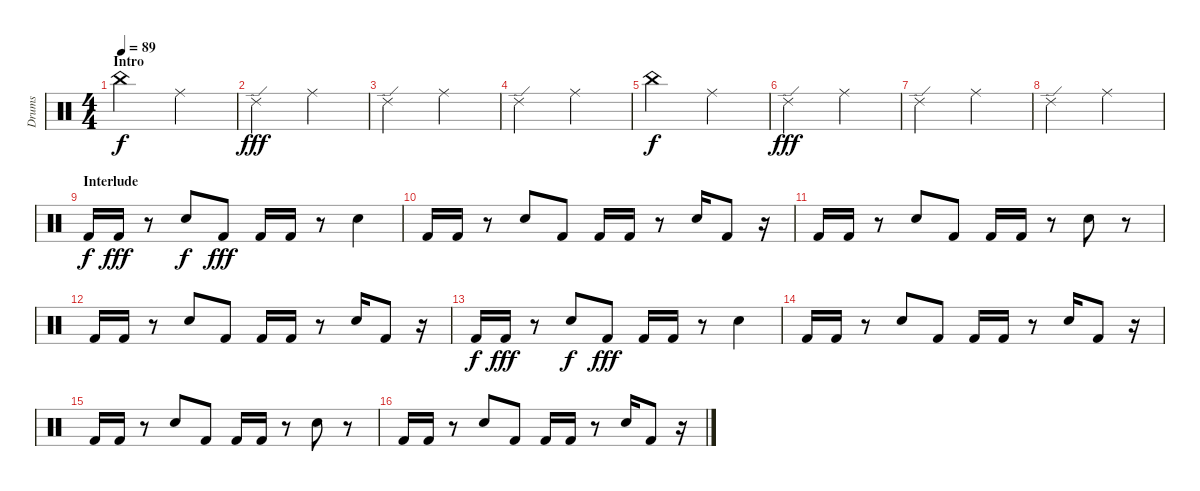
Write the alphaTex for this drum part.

\track ("Drums" "Drums") {instrument percussion}
\staff {score}
\articulation defaults
\ts (4 4)
\section ("" "Intro")
\tempo 89
\clef neutral
\ks c "China (hit)".2{dy f} "Ride (middle)".2
|
"Ride (edge) 2".2{dy fff} "Ride (middle)".2 |
"Ride (edge) 2".2 "Ride (middle)".2 |
"Ride (edge) 2".2 "Ride (middle)".2 |
"China (hit)".2{dy f} "Ride (middle)".2 |
"Ride (edge) 2".2{dy fff} "Ride (middle)".2 |
"Ride (edge) 2".2 "Ride (middle)".2 |
"Ride (edge) 2".2 "Ride (middle)".2 |
\section ("" "Interlude")
"Kick (hit) 2".16{dy f} "Kick (hit) 2".16{dy fff} r.8 "Electric Snare (hit)".8{dy f} "Kick (hit) 2".8{dy fff} "Kick (hit) 2".16 "Kick (hit) 2".16 r.8 "Electric Snare (hit)".4 |
"Kick (hit) 2".16 "Kick (hit) 2".16 r.8 "Electric Snare (hit)".8 "Kick (hit) 2".8 "Kick (hit) 2".16 "Kick (hit) 2".16 r.8 "Electric Snare (hit)".16 "Kick (hit) 2".8 r.16 |
"Kick (hit) 2".16 "Kick (hit) 2".16 r.8 "Electric Snare (hit)".8 "Kick (hit) 2".8 "Kick (hit) 2".16 "Kick (hit) 2".16 r.8 "Electric Snare (hit)".8 r.8 |
"Kick (hit) 2".16 "Kick (hit) 2".16 r.8 "Electric Snare (hit)".8 "Kick (hit) 2".8 "Kick (hit) 2".16 "Kick (hit) 2".16 r.8 "Electric Snare (hit)".16 "Kick (hit) 2".8 r.16 |
"Kick (hit) 2".16{dy f} "Kick (hit) 2".16{dy fff} r.8 "Electric Snare (hit)".8{dy f} "Kick (hit) 2".8{dy fff} "Kick (hit) 2".16 "Kick (hit) 2".16 r.8 "Electric Snare (hit)".4 |
"Kick (hit) 2".16 "Kick (hit) 2".16 r.8 "Electric Snare (hit)".8 "Kick (hit) 2".8 "Kick (hit) 2".16 "Kick (hit) 2".16 r.8 "Electric Snare (hit)".16 "Kick (hit) 2".8 r.16 |
"Kick (hit) 2".16 "Kick (hit) 2".16 r.8 "Electric Snare (hit)".8 "Kick (hit) 2".8 "Kick (hit) 2".16 "Kick (hit) 2".16 r.8 "Electric Snare (hit)".8 r.8 |
"Kick (hit) 2".16 "Kick (hit) 2".16 r.8 "Electric Snare (hit)".8 "Kick (hit) 2".8 "Kick (hit) 2".16 "Kick (hit) 2".16 r.8 "Electric Snare (hit)".16 "Kick (hit) 2".8 r.16
